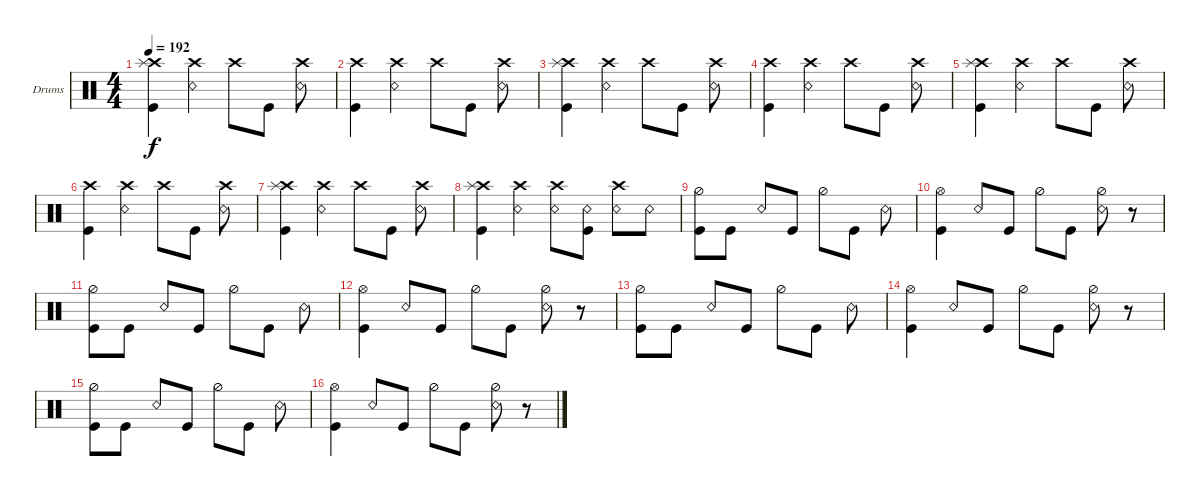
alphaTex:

\defaultSystemsLayout 4
\bracketExtendMode groupsimilarinstruments
\firstSystemTrackNameOrientation horizontal
\otherSystemsTrackNameOrientation horizontal
\track ("Drumkit" "Drums") {instrument percussion}
\staff {score}
\articulation defaults
\ts (4 4)
\tempo 192
\clef neutral
\scale
0.333333
\ks c
("Kick (hit)" "Crash high (hit)" "Splash (hit)").4{dy f} ("Snare (rim shot)" "Crash high (hit)").4 "Crash high (hit)".8 "Kick (hit)".8 ("Snare (rim shot)" "Crash high (hit)").8 |
\scale
0.333333 ("Kick (hit)" "Crash high (hit)").4 ("Snare (rim shot)" "Crash high (hit)").4 "Crash high (hit)".8 "Kick (hit)".8 ("Snare (rim shot)" "Crash high (hit)").8 |
\scale
0.333333 ("Kick (hit)" "Crash high (hit)" "Splash (hit)").4 ("Snare (rim shot)" "Crash high (hit)").4 "Crash high (hit)".8 "Kick (hit)".8 ("Snare (rim shot)" "Crash high (hit)").8 |
\scale
0.333333 ("Kick (hit)" "Crash high (hit)").4 ("Snare (rim shot)" "Crash high (hit)").4 "Crash high (hit)".8 "Kick (hit)".8 ("Snare (rim shot)" "Crash high (hit)").8 |
\scale
0.333333 ("Kick (hit)" "Crash high (hit)" "Splash (hit)").4 ("Snare (rim shot)" "Crash high (hit)").4 "Crash high (hit)".8 "Kick (hit)".8 ("Snare (rim shot)" "Crash high (hit)").8 |
\scale
0.333333 ("Kick (hit)" "Crash high (hit)").4 ("Snare (rim shot)" "Crash high (hit)").4 "Crash high (hit)".8 "Kick (hit)".8 ("Snare (rim shot)" "Crash high (hit)").8 |
\scale
0.333333 ("Kick (hit)" "Crash high (hit)" "Splash (hit)").4 ("Snare (rim shot)" "Crash high (hit)").4 "Crash high (hit)".8 "Kick (hit)".8 ("Snare (rim shot)" "Crash high (hit)").8 |
\scale
0.333333 ("Kick (hit)" "Crash high (hit)" "Splash (hit)").4 ("Snare (rim shot)" "Crash high (hit)").4 ("Crash high (hit)" "Snare (rim shot)").8 ("Kick (hit)" "Snare (rim shot)").8 ("Snare (rim shot)" "Crash high (hit)").8 "Snare (rim shot)".8 |
\scale
0.333333 ("Kick (hit)" "Hi-Hat (half)").8 "Kick (hit)".8 "Snare (rim shot)".8 "Kick (hit)".8 "Hi-Hat (half)".8 "Kick (hit)".8 "Snare (rim shot)".8 |
\scale
0.333333 ("Kick (hit)" "Hi-Hat (open)").4 "Snare (rim shot)".8 "Kick (hit)".8 "Hi-Hat (half)".8 "Kick (hit)".8 ("Snare (rim shot)" "Hi-Hat (half)").8 r.8 |
\scale
0.333333 ("Kick (hit)" "Hi-Hat (half)").8 "Kick (hit)".8 "Snare (rim shot)".8 "Kick (hit)".8 "Hi-Hat (half)".8 "Kick (hit)".8 "Snare (rim shot)".8 |
\scale
0.333333 ("Kick (hit)" "Hi-Hat (open)").4 "Snare (rim shot)".8 "Kick (hit)".8 "Hi-Hat (half)".8 "Kick (hit)".8 ("Snare (rim shot)" "Hi-Hat (half)").8 r.8 |
\scale
0.333333 ("Kick (hit)" "Hi-Hat (half)").8 "Kick (hit)".8 "Snare (rim shot)".8 "Kick (hit)".8 "Hi-Hat (half)".8 "Kick (hit)".8 "Snare (rim shot)".8 |
\scale
0.333333 ("Kick (hit)" "Hi-Hat (open)").4 "Snare (rim shot)".8 "Kick (hit)".8 "Hi-Hat (half)".8 "Kick (hit)".8 ("Snare (rim shot)" "Hi-Hat (half)").8 r.8 |
\scale
0.333333 ("Kick (hit)" "Hi-Hat (half)").8 "Kick (hit)".8 "Snare (rim shot)".8 "Kick (hit)".8 "Hi-Hat (half)".8 "Kick (hit)".8 "Snare (rim shot)".8 |
\scale
0.333333 ("Kick (hit)" "Hi-Hat (open)").4 "Snare (rim shot)".8 "Kick (hit)".8 "Hi-Hat (half)".8 "Kick (hit)".8 ("Snare (rim shot)" "Hi-Hat (half)").8 r.8
